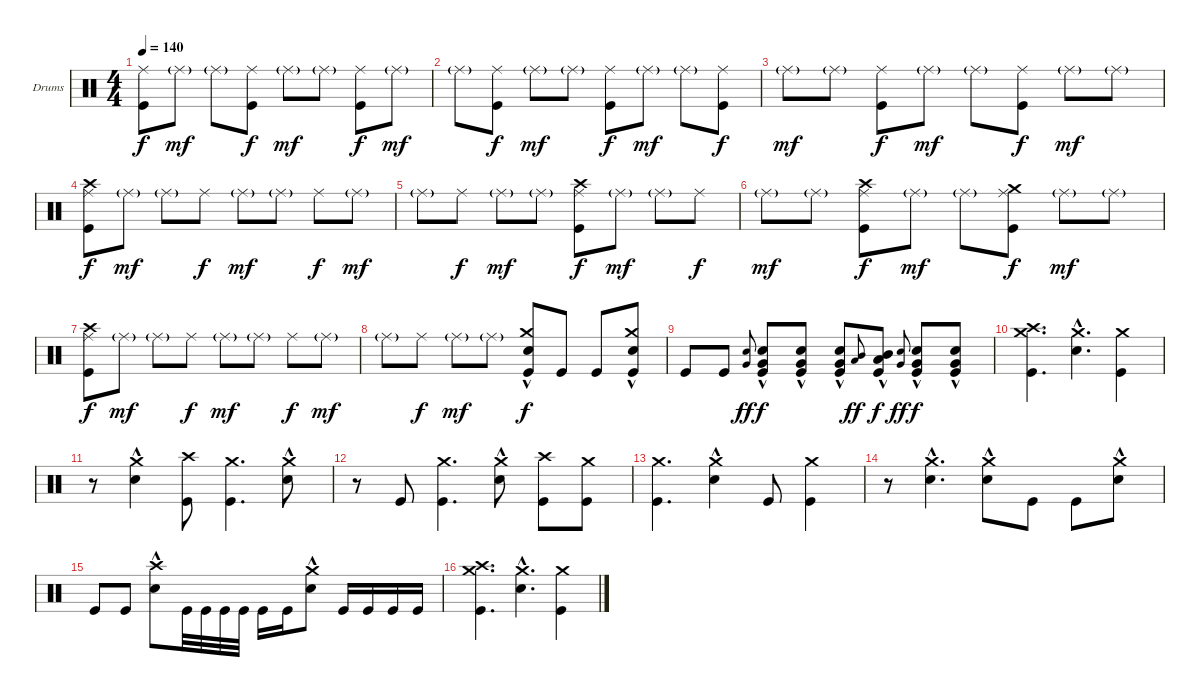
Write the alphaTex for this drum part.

\bracketExtendMode groupsimilarinstruments
\firstSystemTrackNameOrientation horizontal
\otherSystemsTrackNameOrientation horizontal
\track ("Drumkit (Christoph)" "Drums") {instrument percussion}
\staff {score}
\articulation defaults
\ts (4 4)
\tempo 140
\clef neutral
\ks c
("Ride (middle)" "Kick (hit)").8{dy f} "Ride (middle)"{g}.8{dy mf} "Ride (middle)"{g}.8 ("Ride (middle)" "Kick (hit)").8{dy f} "Ride (middle)"{g}.8{dy mf} "Ride (middle)"{g}.8 ("Ride (middle)" "Kick (hit)").8{dy f} "Ride (middle)"{g}.8{dy mf} |
"Ride (middle)"{g}.8 ("Ride (middle)" "Kick (hit)").8{dy f} "Ride (middle)"{g}.8{dy mf} "Ride (middle)"{g}.8 ("Ride (middle)" "Kick (hit)").8{dy f} "Ride (middle)"{g}.8{dy mf} "Ride (middle)"{g}.8 ("Ride (middle)" "Kick (hit)").8{dy f} |
"Ride (middle)"{g}.8{dy mf} "Ride (middle)"{g}.8 ("Ride (middle)" "Kick (hit)").8{dy f} "Ride (middle)"{g}.8{dy mf} "Ride (middle)"{g}.8 ("Ride (middle)" "Kick (hit)").8{dy f} "Ride (middle)"{g}.8{dy mf} "Ride (middle)"{g}.8 |
("Ride (middle)" "Kick (hit)" "Crash high (hit)").8{dy f} "Ride (middle)"{g}.8{dy mf} "Ride (middle)"{g}.8 "Ride (middle)".8{dy f} "Ride (middle)"{g}.8{dy mf} "Ride (middle)"{g}.8 "Ride (middle)".8{dy f} "Ride (middle)"{g}.8{dy mf} |
"Ride (middle)"{g}.8 "Ride (middle)".8{dy f} "Ride (middle)"{g}.8{dy mf} "Ride (middle)"{g}.8 ("Ride (middle)" "Kick (hit)" "Crash high (hit)").8{dy f} "Ride (middle)"{g}.8{dy mf} "Ride (middle)"{g}.8 "Ride (middle)".8{dy f} |
"Ride (middle)"{g}.8{dy mf} "Ride (middle)"{g}.8 ("Ride (middle)" "Kick (hit)" "Crash high (hit)").8{dy f} "Ride (middle)"{g}.8{dy mf} "Ride (middle)"{g}.8 ("Ride (middle)" "Kick (hit)" "Crash medium (hit)").8{dy f} "Ride (middle)"{g}.8{dy mf} "Ride (middle)"{g}.8 |
("Ride (middle)" "Kick (hit)" "Crash high (hit)").8{dy f} "Ride (middle)"{g}.8{dy mf} "Ride (middle)"{g}.8 "Ride (middle)".8{dy f} "Ride (middle)"{g}.8{dy mf} "Ride (middle)"{g}.8 "Ride (middle)".8{dy f} "Ride (middle)"{g}.8{dy mf} |
"Ride (middle)"{g}.8 "Ride (middle)".8{dy f} "Ride (middle)"{g}.8{dy mf} "Ride (middle)"{g}.8 ("Crash medium (hit)" "Kick (hit)" "Snare (hit) 2"{hac}).8{dy f} "Kick (hit)".8 "Kick (hit)".8 ("Crash medium (hit)" "Kick (hit)" "Snare (hit) 2"{hac}).8 |
"Kick (hit)".8 "Kick (hit)".8 ("Snare (hit) 2" "Very Low Tom (hit)").8{gr onbeat dy ff} ("Kick (hit)" "Snare (hit) 2"{hac} "Very Low Tom (hit)"{hac}).8{dy f} ("Kick (hit)" "Snare (hit) 2"{hac} "Very Low Tom (hit)"{hac}).8 ("Kick (hit)" "Snare (hit) 2"{hac} "Very Low Tom (hit)"{hac}).8 ("Mid Tom (hit)" "Low Tom (hit)").8{gr onbeat dy ff} ("Kick (hit)" "Mid Tom (hit)"{hac} "Low Tom (hit)"{hac}).8{dy f} ("Snare (hit) 2" "Very Low Tom (hit)").8{gr onbeat dy ff} ("Kick (hit)" "Snare (hit) 2"{hac} "Very Low Tom (hit)"{hac}).8{dy f} ("Kick (hit)" "Snare (hit) 2"{hac} "Very Low Tom (hit)"{hac}).8 |
("Crash medium (hit)" "Kick (hit)" "Crash high (hit)").4{d} ("Crash medium (hit)" "Snare (hit) 2"{hac}).4{d} ("Crash medium (hit)" "Kick (hit)").4 |
r.8 ("Crash medium (hit)" "Snare (hit) 2"{hac}).4 ("Crash high (hit)" "Kick (hit)").8 ("Crash medium (hit)" "Kick (hit)").4{d} ("Crash medium (hit)" "Snare (hit) 2"{hac}).8 |
r.8 "Kick (hit)".8 ("Crash medium (hit)" "Kick (hit)").4{d} ("Crash medium (hit)" "Snare (hit) 2"{hac}).8 ("Crash high (hit)" "Kick (hit)").8 ("Crash medium (hit)" "Kick (hit)").8 |
("Crash medium (hit)" "Kick (hit)").4{d} ("Crash medium (hit)" "Snare (hit) 2"{hac}).4 "Kick (hit)".8 ("Crash medium (hit)" "Kick (hit)").4 |
r.8 ("Crash medium (hit)" "Snare (hit) 2"{hac}).4{d} ("Crash medium (hit)" "Snare (hit) 2"{hac}).8 "Kick (hit)".8 "Kick (hit)".8 ("Crash medium (hit)" "Snare (hit) 2"{hac}).8 |
"Kick (hit)".8 "Kick (hit)".8 ("Crash high (hit)" "Snare (hit) 2"{hac}).8 "Kick (hit)".32 "Kick (hit)".32 "Kick (hit)".32 "Kick (hit)".32 "Kick (hit)".16 "Kick (hit)".16 ("Crash medium (hit)" "Snare (hit) 2"{hac}).8 "Kick (hit)".16 "Kick (hit)".16 "Kick (hit)".16 "Kick (hit)".16 |
("Crash medium (hit)" "Kick (hit)" "Crash high (hit)").4{d} ("Crash medium (hit)" "Snare (hit) 2"{hac}).4{d} ("Crash medium (hit)" "Kick (hit)").4
